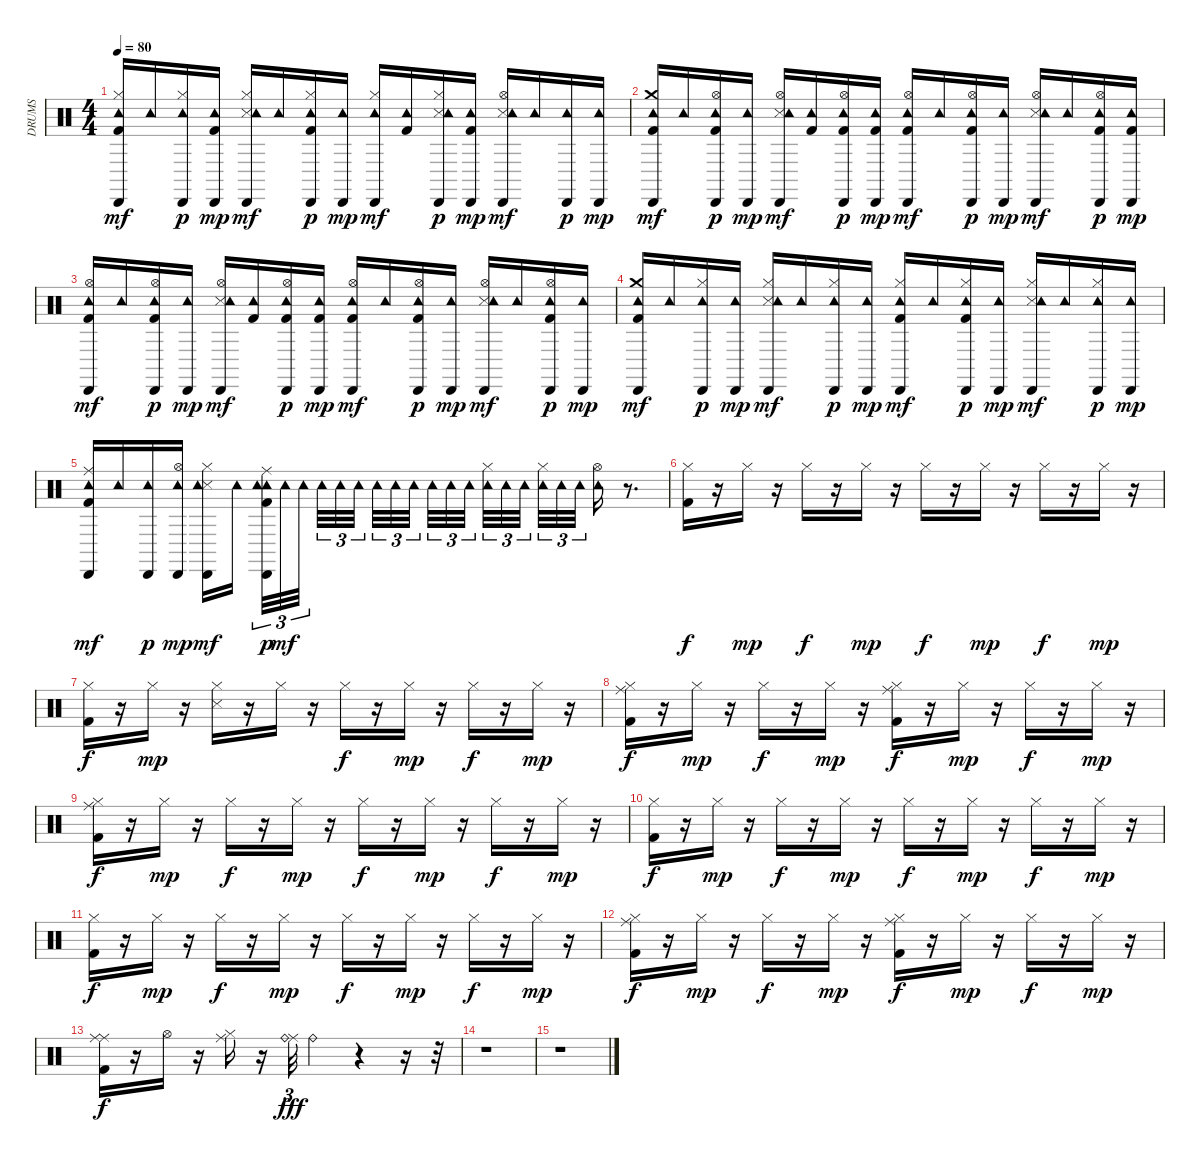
\track ("DRUMS" "DRUMS") {instrument percussion}
\staff {score}
\articulation defaults
\ts (4 4)
\tempo 80
\clef neutral
\ks c
("Kick (hit) 2" "Hi-Hat (closed)" "Tambourine (hit)" "Cabasa (hit)").16{dy mf} "Tambourine (hit)".16 ("Hi-Hat (closed)" "Tambourine (hit)" "Cabasa (hit)").16{dy p} ("Kick (hit) 2" "Tambourine (hit)" "Cabasa (hit)").16{dy mp} ("Hi-Hat (closed)" "Metronome (hit)" "Tambourine (hit)" "Cabasa (hit)").16{dy mf} "Tambourine (hit)".16 ("Kick (hit) 2" "Hi-Hat (closed)" "Tambourine (hit)" "Cabasa (hit)").16{dy p} ("Tambourine (hit)" "Cabasa (hit)").16{dy mp} ("Hi-Hat (closed)" "Tambourine (hit)" "Cabasa (hit)").16{dy mf} ("Kick (hit) 2" "Tambourine (hit)").16 ("Metronome (hit)" "Hi-Hat (closed)" "Tambourine (hit)" "Cabasa (hit)").16{dy p} ("Kick (hit) 2" "Tambourine (hit)" "Cabasa (hit)").16{dy mp} ("Metronome (hit)" "Hi-Hat (open)" "Tambourine (hit)" "Cabasa (hit)").16{dy mf} "Tambourine (hit)".16 ("Tambourine (hit)" "Cabasa (hit)").16{dy p} ("Tambourine (hit)" "Cabasa (hit)").16{dy mp} |
("Kick (hit) 2" "Crash medium (hit)" "Tambourine (hit)" "Cabasa (hit)").16{dy mf} "Tambourine (hit)".16 ("Kick (hit) 2" "Hi-Hat (open)" "Tambourine (hit)" "Cabasa (hit)").16{dy p} ("Tambourine (hit)" "Cabasa (hit)").16{dy mp} ("Metronome (hit)" "Hi-Hat (open)" "Tambourine (hit)" "Cabasa (hit)").16{dy mf} ("Kick (hit) 2" "Tambourine (hit)").16 ("Hi-Hat (open)" "Kick (hit) 2" "Tambourine (hit)" "Cabasa (hit)").16{dy p} ("Kick (hit) 2" "Tambourine (hit)" "Cabasa (hit)").16{dy mp} ("Kick (hit) 2" "Hi-Hat (open)" "Tambourine (hit)" "Cabasa (hit)").16{dy mf} "Tambourine (hit)".16 ("Kick (hit) 2" "Hi-Hat (open)" "Tambourine (hit)" "Cabasa (hit)").16{dy p} ("Tambourine (hit)" "Cabasa (hit)").16{dy mp} ("Metronome (hit)" "Hi-Hat (open)" "Tambourine (hit)" "Cabasa (hit)").16{dy mf} "Tambourine (hit)".16 ("Kick (hit) 2" "Hi-Hat (open)" "Tambourine (hit)" "Cabasa (hit)").16{dy p} ("Kick (hit) 2" "Tambourine (hit)" "Cabasa (hit)").16{dy mp} |
("Kick (hit) 2" "Hi-Hat (open)" "Tambourine (hit)" "Cabasa (hit)").16{dy mf} "Tambourine (hit)".16 ("Kick (hit) 2" "Hi-Hat (open)" "Tambourine (hit)" "Cabasa (hit)").16{dy p} ("Tambourine (hit)" "Cabasa (hit)").16{dy mp} ("Metronome (hit)" "Hi-Hat (open)" "Tambourine (hit)" "Cabasa (hit)").16{dy mf} ("Kick (hit) 2" "Tambourine (hit)").16 ("Kick (hit) 2" "Hi-Hat (open)" "Tambourine (hit)" "Cabasa (hit)").16{dy p} ("Kick (hit) 2" "Tambourine (hit)" "Cabasa (hit)").16{dy mp} ("Kick (hit) 2" "Hi-Hat (open)" "Tambourine (hit)" "Cabasa (hit)").16{dy mf} "Tambourine (hit)".16 ("Kick (hit) 2" "Hi-Hat (open)" "Tambourine (hit)" "Cabasa (hit)").16{dy p} ("Tambourine (hit)" "Cabasa (hit)").16{dy mp} ("Metronome (hit)" "Hi-Hat (open)" "Tambourine (hit)" "Cabasa (hit)").16{dy mf} "Tambourine (hit)".16 ("Kick (hit) 2" "Hi-Hat (open)" "Tambourine (hit)" "Cabasa (hit)").16{dy p} ("Tambourine (hit)" "Cabasa (hit)").16{dy mp} |
("Kick (hit) 2" "Crash medium (hit)" "Tambourine (hit)" "Cabasa (hit)").16{dy mf} "Tambourine (hit)".16 ("Hi-Hat (closed)" "Tambourine (hit)" "Cabasa (hit)").16{dy p} ("Tambourine (hit)" "Cabasa (hit)").16{dy mp} ("Metronome (hit)" "Hi-Hat (closed)" "Tambourine (hit)" "Cabasa (hit)").16{dy mf} "Tambourine (hit)".16 ("Hi-Hat (closed)" "Tambourine (hit)" "Cabasa (hit)").16{dy p} ("Tambourine (hit)" "Cabasa (hit)").16{dy mp} ("Kick (hit) 2" "Hi-Hat (closed)" "Tambourine (hit)" "Cabasa (hit)").16{dy mf} "Tambourine (hit)".16 ("Kick (hit) 2" "Hi-Hat (closed)" "Tambourine (hit)" "Cabasa (hit)").16{dy p} ("Tambourine (hit)" "Cabasa (hit)").16{dy mp} ("Metronome (hit)" "Hi-Hat (closed)" "Tambourine (hit)" "Cabasa (hit)").16{dy mf} "Tambourine (hit)".16 ("Hi-Hat (closed)" "Tambourine (hit)" "Cabasa (hit)").16{dy p} ("Tambourine (hit)" "Cabasa (hit)").16{dy mp} |
("Kick (hit) 2" "Ride (middle)" "Tambourine (hit)" "Cabasa (hit)").16{dy mf} "Tambourine (hit)".16 ("Tambourine (hit)" "Cabasa (hit)").16{dy p} ("Hi-Hat (open)" "Tambourine (hit)" "Cabasa (hit)").16{dy mp} ("Metronome (hit)" "Hi-Hat (closed)" "Tambourine (hit)" "Cabasa (hit)").16{dy mf} "Tambourine (hit)".16 ("Kick (hit) 2" "Ride (middle)" "Tambourine (hit)" "Tambourine (hit)" "Cabasa (hit)").32{tu (3 2) dy p} "Tambourine (hit)".32{tu (3 2) dy mf} "Tambourine (hit)".32{tu (3 2)} "Tambourine (hit)".32{tu (3 2)} "Tambourine (hit)".32{tu (3 2)} "Tambourine (hit)".32{tu (3 2)} "Tambourine (hit)".32{tu (3 2)} "Tambourine (hit)".32{tu (3 2)} "Tambourine (hit)".32{tu (3 2)} "Tambourine (hit)".32{tu (3 2)} "Tambourine (hit)".32{tu (3 2)} "Tambourine (hit)".32{tu (3 2)} ("Hi-Hat (closed)" "Tambourine (hit)").32{tu (3 2)} "Tambourine (hit)".32{tu (3 2)} "Tambourine (hit)".32{tu (3 2)} ("Hi-Hat (closed)" "Tambourine (hit)").32{tu (3 2)} "Tambourine (hit)".32{tu (3 2)} "Tambourine (hit)".32{tu (3 2)} ("Hi-Hat (open)" "Tambourine (hit)").16 r.8{d} |
("Kick (hit) 2" "Hi-Hat (closed)").16{dy f} r.16 "Hi-Hat (closed)".16{dy mp} r.16 "Hi-Hat (closed)".16{dy f} r.16 "Hi-Hat (closed)".16{dy mp} r.16 "Hi-Hat (closed)".16{dy f} r.16 "Hi-Hat (closed)".16{dy mp} r.16 "Hi-Hat (closed)".16{dy f} r.16 "Hi-Hat (closed)".16{dy mp} r.16 |
("Kick (hit) 2" "Hi-Hat (closed)").16{dy f} r.16 "Hi-Hat (closed)".16{dy mp} r.16 ("Snare (side stick) 3" "Hi-Hat (closed)").16 r.16 "Hi-Hat (closed)".16 r.16 "Hi-Hat (closed)".16{dy f} r.16 "Hi-Hat (closed)".16{dy mp} r.16 "Hi-Hat (closed)".16{dy f} r.16 "Hi-Hat (closed)".16{dy mp} r.16 |
("Ride (middle)" "Kick (hit) 2" "Hi-Hat (closed)").16{dy f} r.16 "Hi-Hat (closed)".16{dy mp} r.16 "Hi-Hat (closed)".16{dy f} r.16 "Hi-Hat (closed)".16{dy mp} r.16 ("Kick (hit) 2" "Ride (middle)" "Hi-Hat (closed)").16{dy f} r.16 "Hi-Hat (closed)".16{dy mp} r.16 "Hi-Hat (closed)".16{dy f} r.16 "Hi-Hat (closed)".16{dy mp} r.16 |
("Ride (middle)" "Kick (hit) 2" "Hi-Hat (closed)").16{dy f} r.16 "Hi-Hat (closed)".16{dy mp} r.16 "Hi-Hat (closed)".16{dy f} r.16 "Hi-Hat (closed)".16{dy mp} r.16 "Hi-Hat (closed)".16{dy f} r.16 "Hi-Hat (closed)".16{dy mp} r.16 "Hi-Hat (closed)".16{dy f} r.16 "Hi-Hat (closed)".16{dy mp} r.16 |
("Kick (hit) 2" "Hi-Hat (closed)").16{dy f} r.16 "Hi-Hat (closed)".16{dy mp} r.16 "Hi-Hat (closed)".16{dy f} r.16 "Hi-Hat (closed)".16{dy mp} r.16 "Hi-Hat (closed)".16{dy f} r.16 "Hi-Hat (closed)".16{dy mp} r.16 "Hi-Hat (closed)".16{dy f} r.16 "Hi-Hat (closed)".16{dy mp} r.16 |
("Kick (hit) 2" "Hi-Hat (closed)").16{dy f} r.16 "Hi-Hat (closed)".16{dy mp} r.16 "Hi-Hat (closed)".16{dy f} r.16 "Hi-Hat (closed)".16{dy mp} r.16 "Hi-Hat (closed)".16{dy f} r.16 "Hi-Hat (closed)".16{dy mp} r.16 "Hi-Hat (closed)".16{dy f} r.16 "Hi-Hat (closed)".16{dy mp} r.16 |
("Ride (middle)" "Kick (hit) 2" "Hi-Hat (closed)").16{dy f} r.16 "Hi-Hat (closed)".16{dy mp} r.16 "Hi-Hat (closed)".16{dy f} r.16 "Hi-Hat (closed)".16{dy mp} r.16 ("Kick (hit) 2" "Ride (middle)" "Hi-Hat (closed)").16{dy f} r.16 "Hi-Hat (closed)".16{dy mp} r.16 "Hi-Hat (closed)".16{dy f} r.16 "Hi-Hat (closed)".16{dy mp} r.16 |
("Ride (middle)" "Kick (hit) 2" "Ride (middle)").16{dy f} r.16 "Hi-Hat (open)".16 r.16 ("Ride (middle)" "Hi-Hat (closed)").16 r.16 ("Ride (middle)" "Ride (bell)").32{tu (3 2) dy fff} "Ride (bell)".4 r.4 r.16 r.32 |
r.1 |
r.1
